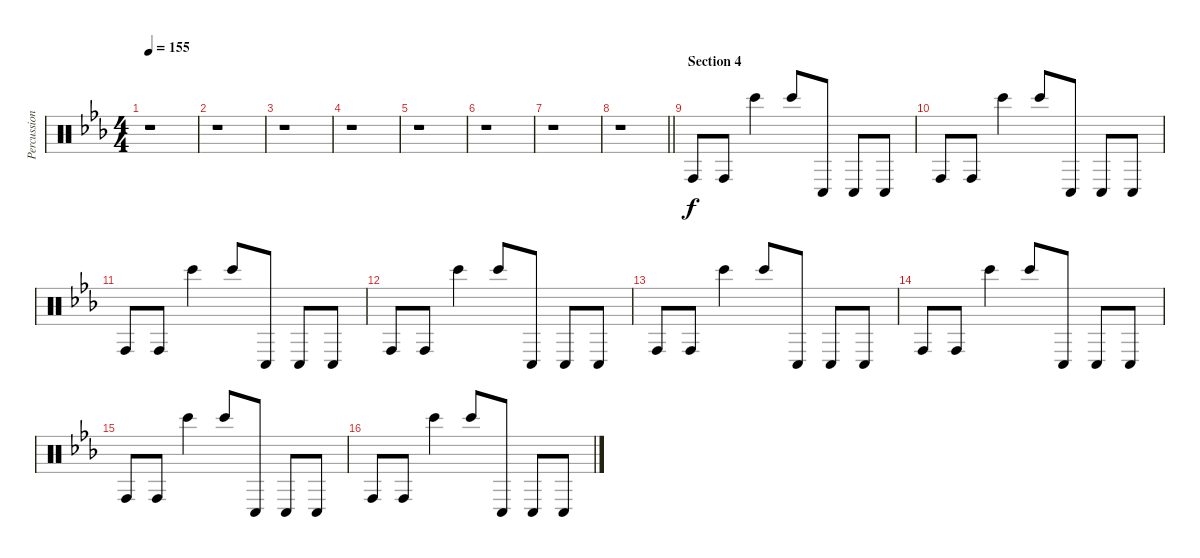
\track ("Percussion" "Percussion") {instrument percussion}
\staff {score}
\articulation defaults
\ts (4 4)
\tempo 155
\clef neutral
\ks eb
r.1{dy f} |
r.1 |
r.1 |
r.1 |
r.1 |
r.1 |
r.1 |
\barLineRight lightlight
r.1 |
\section ("" "Section 4")
"Conga high (hit)".8 "Conga high (hit)".8 "Bongo High (hit)".4 "Bongo High (hit)".8 "Conga low (hit)".8 "Conga low (hit)".8 "Conga low (hit)".8 |
"Conga high (hit)".8 "Conga high (hit)".8 "Bongo High (hit)".4 "Bongo High (hit)".8 "Conga low (hit)".8 "Conga low (hit)".8 "Conga low (hit)".8 |
"Conga high (hit)".8 "Conga high (hit)".8 "Bongo High (hit)".4 "Bongo High (hit)".8 "Conga low (hit)".8 "Conga low (hit)".8 "Conga low (hit)".8 |
"Conga high (hit)".8 "Conga high (hit)".8 "Bongo High (hit)".4 "Bongo High (hit)".8 "Conga low (hit)".8 "Conga low (hit)".8 "Conga low (hit)".8 |
"Conga high (hit)".8 "Conga high (hit)".8 "Bongo High (hit)".4 "Bongo High (hit)".8 "Conga low (hit)".8 "Conga low (hit)".8 "Conga low (hit)".8 |
"Conga high (hit)".8 "Conga high (hit)".8 "Bongo High (hit)".4 "Bongo High (hit)".8 "Conga low (hit)".8 "Conga low (hit)".8 "Conga low (hit)".8 |
"Conga high (hit)".8 "Conga high (hit)".8 "Bongo High (hit)".4 "Bongo High (hit)".8 "Conga low (hit)".8 "Conga low (hit)".8 "Conga low (hit)".8 |
"Conga high (hit)".8 "Conga high (hit)".8 "Bongo High (hit)".4 "Bongo High (hit)".8 "Conga low (hit)".8 "Conga low (hit)".8 "Conga low (hit)".8
